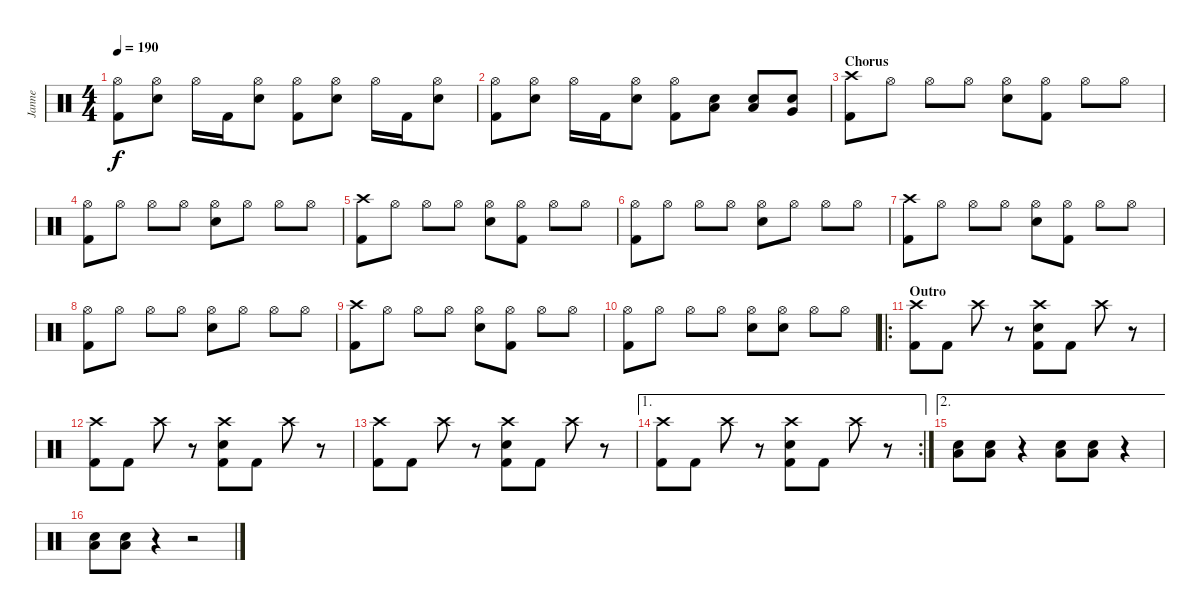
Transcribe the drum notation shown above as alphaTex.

\track ("Janne" "Janne") {instrument percussion}
\staff {score}
\articulation defaults
\ts (4 4)
\tempo 190
\clef neutral
\ks c
("Hi-Hat (open)" "Kick (hit) 2").8{dy f} ("Hi-Hat (open)" "Electric Snare (hit)").8 "Hi-Hat (open)".16 "Kick (hit) 2".16 ("Hi-Hat (open)" "Electric Snare (hit)").8 ("Hi-Hat (open)" "Kick (hit) 2").8 ("Hi-Hat (open)" "Electric Snare (hit)").8 "Hi-Hat (open)".16 "Kick (hit) 2".16 ("Hi-Hat (open)" "Electric Snare (hit)").8 |
("Hi-Hat (open)" "Kick (hit) 2").8 ("Hi-Hat (open)" "Electric Snare (hit)").8 "Hi-Hat (open)".16 "Kick (hit) 2".16 ("Hi-Hat (open)" "Electric Snare (hit)").8 ("Hi-Hat (open)" "Kick (hit) 2").8 ("Low Tom (hit)" "Electric Snare (hit)").8 ("Low Tom (hit)" "Electric Snare (hit)").8 ("Very Low Tom (hit)" "Electric Snare (hit)").8 |
\section ("" "Chorus")
("Crash high (hit)" "Kick (hit) 2").8 "Hi-Hat (open)".8 "Hi-Hat (open)".8 "Hi-Hat (open)".8 ("Hi-Hat (open)" "Electric Snare (hit)").8 ("Hi-Hat (open)" "Kick (hit) 2").8 "Hi-Hat (open)".8 "Hi-Hat (open)".8 |
("Hi-Hat (open)" "Kick (hit) 2").8 "Hi-Hat (open)".8 "Hi-Hat (open)".8 "Hi-Hat (open)".8 ("Hi-Hat (open)" "Electric Snare (hit)").8 "Hi-Hat (open)".8 "Hi-Hat (open)".8 "Hi-Hat (open)".8 |
("Crash high (hit)" "Kick (hit) 2").8 "Hi-Hat (open)".8 "Hi-Hat (open)".8 "Hi-Hat (open)".8 ("Hi-Hat (open)" "Electric Snare (hit)").8 ("Hi-Hat (open)" "Kick (hit) 2").8 "Hi-Hat (open)".8 "Hi-Hat (open)".8 |
("Hi-Hat (open)" "Kick (hit) 2").8 "Hi-Hat (open)".8 "Hi-Hat (open)".8 "Hi-Hat (open)".8 ("Hi-Hat (open)" "Electric Snare (hit)").8 "Hi-Hat (open)".8 "Hi-Hat (open)".8 "Hi-Hat (open)".8 |
("Crash high (hit)" "Kick (hit) 2").8 "Hi-Hat (open)".8 "Hi-Hat (open)".8 "Hi-Hat (open)".8 ("Hi-Hat (open)" "Electric Snare (hit)").8 ("Hi-Hat (open)" "Kick (hit) 2").8 "Hi-Hat (open)".8 "Hi-Hat (open)".8 |
("Hi-Hat (open)" "Kick (hit) 2").8 "Hi-Hat (open)".8 "Hi-Hat (open)".8 "Hi-Hat (open)".8 ("Hi-Hat (open)" "Electric Snare (hit)").8 "Hi-Hat (open)".8 "Hi-Hat (open)".8 "Hi-Hat (open)".8 |
("Crash high (hit)" "Kick (hit) 2").8 "Hi-Hat (open)".8 "Hi-Hat (open)".8 "Hi-Hat (open)".8 ("Hi-Hat (open)" "Electric Snare (hit)").8 ("Hi-Hat (open)" "Kick (hit) 2").8 "Hi-Hat (open)".8 "Hi-Hat (open)".8 |
("Hi-Hat (open)" "Kick (hit) 2").8 "Hi-Hat (open)".8 "Hi-Hat (open)".8 "Hi-Hat (open)".8 ("Hi-Hat (open)" "Electric Snare (hit)").8 ("Hi-Hat (open)" "Electric Snare (hit)").8 "Hi-Hat (open)".8 "Hi-Hat (open)".8 |
\ro
\section ("" "Outro")
("Crash high (hit)" "Kick (hit) 2").8 "Kick (hit) 2".8 "Crash high (hit)".8 r.8 ("Crash high (hit)" "Electric Snare (hit)" "Kick (hit) 2").8 "Kick (hit) 2".8 "Crash high (hit)".8 r.8 |
("Crash high (hit)" "Kick (hit) 2").8 "Kick (hit) 2".8 "Crash high (hit)".8 r.8 ("Crash high (hit)" "Electric Snare (hit)" "Kick (hit) 2").8 "Kick (hit) 2".8 "Crash high (hit)".8 r.8 |
("Crash high (hit)" "Kick (hit) 2").8 "Kick (hit) 2".8 "Crash high (hit)".8 r.8 ("Crash high (hit)" "Electric Snare (hit)" "Kick (hit) 2").8 "Kick (hit) 2".8 "Crash high (hit)".8 r.8 |
\ae 1
\rc 2
("Crash high (hit)" "Kick (hit) 2").8 "Kick (hit) 2".8 "Crash high (hit)".8 r.8 ("Crash high (hit)" "Electric Snare (hit)" "Kick (hit) 2").8 "Kick (hit) 2".8 "Crash high (hit)".8 r.8 |
\ae 2
("Low Floor Tom (hit)" "Electric Snare (hit)").8 ("Low Floor Tom (hit)" "Electric Snare (hit)").8 r.4 ("Low Floor Tom (hit)" "Electric Snare (hit)").8 ("Low Floor Tom (hit)" "Electric Snare (hit)").8 r.4 |
("Low Floor Tom (hit)" "Electric Snare (hit)").8 ("Low Floor Tom (hit)" "Electric Snare (hit)").8 r.4 r.2
